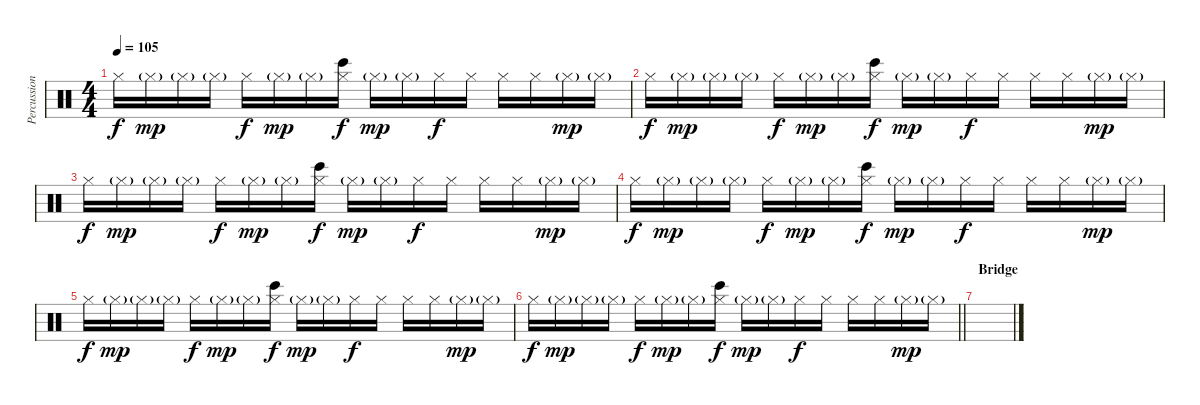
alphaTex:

\track ("Percussions and Arrangements" "Percussion") {instrument percussion}
\staff {score}
\articulation defaults
\ts (4 4)
\tempo 105
\clef neutral
\ks c "Hi-Hat (closed)".16{dy f} "Hi-Hat (closed)"{g}.16{dy mp} "Hi-Hat (closed)"{g}.16 "Hi-Hat (closed)"{g}.16 "Hi-Hat (closed)".16{dy f} "Hi-Hat (closed)"{g}.16{dy mp} "Hi-Hat (closed)"{g}.16
("Hi-Hat (closed)" "Bongo High (hit)").16{dy f} "Hi-Hat (closed)"{g}.16{dy mp} "Hi-Hat (closed)"{g}.16 "Hi-Hat (closed)".16{dy f} "Hi-Hat (closed)".16 "Hi-Hat (closed)".16 "Hi-Hat (closed)".16 "Hi-Hat (closed)"{g}.16{dy mp} "Hi-Hat (closed)"{g}.16 |
"Hi-Hat (closed)".16{dy f} "Hi-Hat (closed)"{g}.16{dy mp} "Hi-Hat (closed)"{g}.16 "Hi-Hat (closed)"{g}.16 "Hi-Hat (closed)".16{dy f} "Hi-Hat (closed)"{g}.16{dy mp} "Hi-Hat (closed)"{g}.16 ("Hi-Hat (closed)" "Bongo High (hit)").16{dy f} "Hi-Hat (closed)"{g}.16{dy mp} "Hi-Hat (closed)"{g}.16 "Hi-Hat (closed)".16{dy f} "Hi-Hat (closed)".16 "Hi-Hat (closed)".16 "Hi-Hat (closed)".16 "Hi-Hat (closed)"{g}.16{dy mp} "Hi-Hat (closed)"{g}.16 |
"Hi-Hat (closed)".16{dy f} "Hi-Hat (closed)"{g}.16{dy mp} "Hi-Hat (closed)"{g}.16 "Hi-Hat (closed)"{g}.16 "Hi-Hat (closed)".16{dy f} "Hi-Hat (closed)"{g}.16{dy mp} "Hi-Hat (closed)"{g}.16 ("Hi-Hat (closed)" "Bongo High (hit)").16{dy f} "Hi-Hat (closed)"{g}.16{dy mp} "Hi-Hat (closed)"{g}.16 "Hi-Hat (closed)".16{dy f} "Hi-Hat (closed)".16 "Hi-Hat (closed)".16 "Hi-Hat (closed)".16 "Hi-Hat (closed)"{g}.16{dy mp} "Hi-Hat (closed)"{g}.16 |
"Hi-Hat (closed)".16{dy f} "Hi-Hat (closed)"{g}.16{dy mp} "Hi-Hat (closed)"{g}.16 "Hi-Hat (closed)"{g}.16 "Hi-Hat (closed)".16{dy f} "Hi-Hat (closed)"{g}.16{dy mp} "Hi-Hat (closed)"{g}.16 ("Hi-Hat (closed)" "Bongo High (hit)").16{dy f} "Hi-Hat (closed)"{g}.16{dy mp} "Hi-Hat (closed)"{g}.16 "Hi-Hat (closed)".16{dy f} "Hi-Hat (closed)".16 "Hi-Hat (closed)".16 "Hi-Hat (closed)".16 "Hi-Hat (closed)"{g}.16{dy mp} "Hi-Hat (closed)"{g}.16 |
"Hi-Hat (closed)".16{dy f} "Hi-Hat (closed)"{g}.16{dy mp} "Hi-Hat (closed)"{g}.16 "Hi-Hat (closed)"{g}.16 "Hi-Hat (closed)".16{dy f} "Hi-Hat (closed)"{g}.16{dy mp} "Hi-Hat (closed)"{g}.16 ("Hi-Hat (closed)" "Bongo High (hit)").16{dy f} "Hi-Hat (closed)"{g}.16{dy mp} "Hi-Hat (closed)"{g}.16 "Hi-Hat (closed)".16{dy f} "Hi-Hat (closed)".16 "Hi-Hat (closed)".16 "Hi-Hat (closed)".16 "Hi-Hat (closed)"{g}.16{dy mp} "Hi-Hat (closed)"{g}.16 |
\barLineRight lightlight "Hi-Hat (closed)".16{dy f} "Hi-Hat (closed)"{g}.16{dy mp} "Hi-Hat (closed)"{g}.16 "Hi-Hat (closed)"{g}.16 "Hi-Hat (closed)".16{dy f} "Hi-Hat (closed)"{g}.16{dy mp} "Hi-Hat (closed)"{g}.16
("Hi-Hat (closed)" "Bongo High (hit)").16{dy f} "Hi-Hat (closed)"{g}.16{dy mp} "Hi-Hat (closed)"{g}.16 "Hi-Hat (closed)".16{dy f} "Hi-Hat (closed)".16 "Hi-Hat (closed)".16 "Hi-Hat (closed)".16 "Hi-Hat (closed)"{g}.16{dy mp} "Hi-Hat (closed)"{g}.16 |
\section ("" "Bridge")
